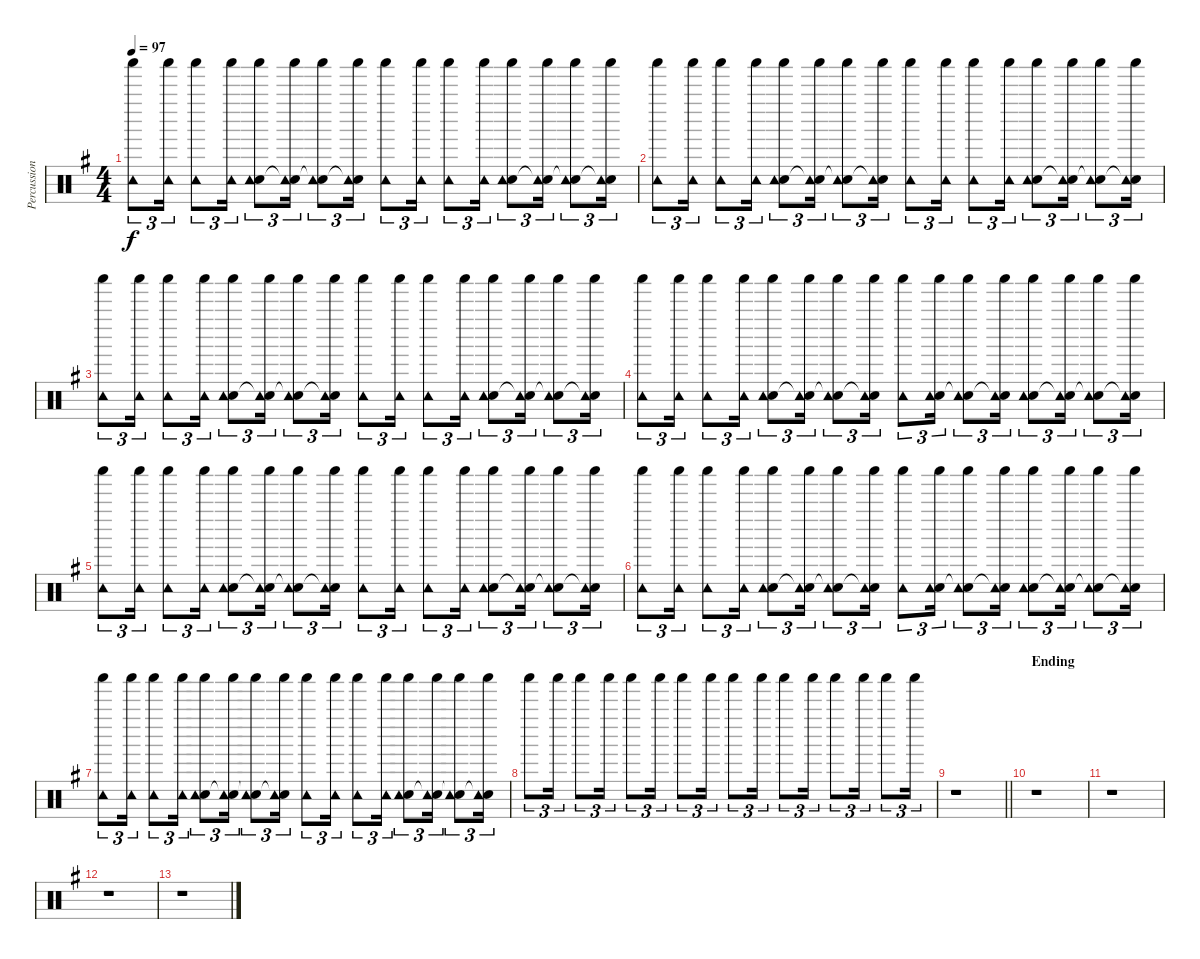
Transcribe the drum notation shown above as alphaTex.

\track ("Percussion" "Percussion") {instrument percussion}
\staff {score}
\articulation defaults
\ts (4 4)
\tempo 97
\clef neutral
\ks g
("Shaker (hit)" "Tambourine (hit)").8{tu (3 2) dy f} ("Shaker (hit)" "Tambourine (hit)").16{tu (3 2)} ("Shaker (hit)" "Tambourine (hit)").8{tu (3 2)} ("Shaker (hit)" "Tambourine (hit)").16{tu (3 2)} ("Hand Clap (hit)" "Shaker (hit)" "Tambourine (hit)").8{tu (3 2)} ("Snare (hit)"{t} "Shaker (hit)" "Tambourine (hit)").16{tu (3 2)} ("Snare (hit)"{t} "Shaker (hit)" "Tambourine (hit)").8{tu (3 2)} ("Snare (hit)"{t} "Shaker (hit)" "Tambourine (hit)").16{tu (3 2)} ("Shaker (hit)" "Tambourine (hit)").8{tu (3 2)} ("Shaker (hit)" "Tambourine (hit)").16{tu (3 2)} ("Shaker (hit)" "Tambourine (hit)").8{tu (3 2)} ("Shaker (hit)" "Tambourine (hit)").16{tu (3 2)} ("Hand Clap (hit)" "Shaker (hit)" "Tambourine (hit)").8{tu (3 2)} ("Snare (hit)"{t} "Shaker (hit)" "Tambourine (hit)").16{tu (3 2)} ("Snare (hit)"{t} "Shaker (hit)" "Tambourine (hit)").8{tu (3 2)} ("Snare (hit)"{t} "Shaker (hit)" "Tambourine (hit)").16{tu (3 2)} |
("Shaker (hit)" "Tambourine (hit)").8{tu (3 2)} ("Shaker (hit)" "Tambourine (hit)").16{tu (3 2)} ("Shaker (hit)" "Tambourine (hit)").8{tu (3 2)} ("Shaker (hit)" "Tambourine (hit)").16{tu (3 2)} ("Hand Clap (hit)" "Shaker (hit)" "Tambourine (hit)").8{tu (3 2)} ("Snare (hit)"{t} "Shaker (hit)" "Tambourine (hit)").16{tu (3 2)} ("Snare (hit)"{t} "Shaker (hit)" "Tambourine (hit)").8{tu (3 2)} ("Snare (hit)"{t} "Shaker (hit)" "Tambourine (hit)").16{tu (3 2)} ("Shaker (hit)" "Tambourine (hit)").8{tu (3 2)} ("Shaker (hit)" "Tambourine (hit)").16{tu (3 2)} ("Shaker (hit)" "Tambourine (hit)").8{tu (3 2)} ("Shaker (hit)" "Tambourine (hit)").16{tu (3 2)} ("Hand Clap (hit)" "Shaker (hit)" "Tambourine (hit)").8{tu (3 2)} ("Snare (hit)"{t} "Shaker (hit)" "Tambourine (hit)").16{tu (3 2)} ("Snare (hit)"{t} "Shaker (hit)" "Tambourine (hit)").8{tu (3 2)} ("Snare (hit)"{t} "Shaker (hit)" "Tambourine (hit)").16{tu (3 2)} |
("Shaker (hit)" "Tambourine (hit)").8{tu (3 2)} ("Shaker (hit)" "Tambourine (hit)").16{tu (3 2)} ("Shaker (hit)" "Tambourine (hit)").8{tu (3 2)} ("Shaker (hit)" "Tambourine (hit)").16{tu (3 2)} ("Hand Clap (hit)" "Shaker (hit)" "Tambourine (hit)").8{tu (3 2)} ("Snare (hit)"{t} "Shaker (hit)" "Tambourine (hit)").16{tu (3 2)} ("Snare (hit)"{t} "Shaker (hit)" "Tambourine (hit)").8{tu (3 2)} ("Snare (hit)"{t} "Shaker (hit)" "Tambourine (hit)").16{tu (3 2)} ("Shaker (hit)" "Tambourine (hit)").8{tu (3 2)} ("Shaker (hit)" "Tambourine (hit)").16{tu (3 2)} ("Shaker (hit)" "Tambourine (hit)").8{tu (3 2)} ("Shaker (hit)" "Tambourine (hit)").16{tu (3 2)} ("Hand Clap (hit)" "Shaker (hit)" "Tambourine (hit)").8{tu (3 2)} ("Snare (hit)"{t} "Shaker (hit)" "Tambourine (hit)").16{tu (3 2)} ("Snare (hit)"{t} "Shaker (hit)" "Tambourine (hit)").8{tu (3 2)} ("Snare (hit)"{t} "Shaker (hit)" "Tambourine (hit)").16{tu (3 2)} |
("Shaker (hit)" "Tambourine (hit)").8{tu (3 2)} ("Shaker (hit)" "Tambourine (hit)").16{tu (3 2)} ("Shaker (hit)" "Tambourine (hit)").8{tu (3 2)} ("Shaker (hit)" "Tambourine (hit)").16{tu (3 2)} ("Hand Clap (hit)" "Shaker (hit)" "Tambourine (hit)").8{tu (3 2)} ("Snare (hit)"{t} "Shaker (hit)" "Tambourine (hit)").16{tu (3 2)} ("Snare (hit)"{t} "Shaker (hit)" "Tambourine (hit)").8{tu (3 2)} ("Snare (hit)"{t} "Shaker (hit)" "Tambourine (hit)").16{tu (3 2)} ("Shaker (hit)" "Tambourine (hit)").8{tu (3 2)} ("Hand Clap (hit)" "Shaker (hit)" "Tambourine (hit)").16{tu (3 2)} ("Snare (hit)"{t} "Shaker (hit)" "Tambourine (hit)").8{tu (3 2)} ("Snare (hit)"{t} "Shaker (hit)" "Tambourine (hit)").16{tu (3 2)} ("Hand Clap (hit)" "Shaker (hit)" "Tambourine (hit)").8{tu (3 2)} ("Snare (hit)"{t} "Shaker (hit)" "Tambourine (hit)").16{tu (3 2)} ("Snare (hit)"{t} "Shaker (hit)" "Tambourine (hit)").8{tu (3 2)} ("Snare (hit)"{t} "Shaker (hit)" "Tambourine (hit)").16{tu (3 2)} |
("Shaker (hit)" "Tambourine (hit)").8{tu (3 2)} ("Shaker (hit)" "Tambourine (hit)").16{tu (3 2)} ("Shaker (hit)" "Tambourine (hit)").8{tu (3 2)} ("Shaker (hit)" "Tambourine (hit)").16{tu (3 2)} ("Hand Clap (hit)" "Shaker (hit)" "Tambourine (hit)").8{tu (3 2)} ("Snare (hit)"{t} "Shaker (hit)" "Tambourine (hit)").16{tu (3 2)} ("Snare (hit)"{t} "Shaker (hit)" "Tambourine (hit)").8{tu (3 2)} ("Snare (hit)"{t} "Shaker (hit)" "Tambourine (hit)").16{tu (3 2)} ("Shaker (hit)" "Tambourine (hit)").8{tu (3 2)} ("Shaker (hit)" "Tambourine (hit)").16{tu (3 2)} ("Shaker (hit)" "Tambourine (hit)").8{tu (3 2)} ("Shaker (hit)" "Tambourine (hit)").16{tu (3 2)} ("Hand Clap (hit)" "Shaker (hit)" "Tambourine (hit)").8{tu (3 2)} ("Snare (hit)"{t} "Shaker (hit)" "Tambourine (hit)").16{tu (3 2)} ("Snare (hit)"{t} "Shaker (hit)" "Tambourine (hit)").8{tu (3 2)} ("Snare (hit)"{t} "Shaker (hit)" "Tambourine (hit)").16{tu (3 2)} |
("Shaker (hit)" "Tambourine (hit)").8{tu (3 2)} ("Shaker (hit)" "Tambourine (hit)").16{tu (3 2)} ("Shaker (hit)" "Tambourine (hit)").8{tu (3 2)} ("Shaker (hit)" "Tambourine (hit)").16{tu (3 2)} ("Hand Clap (hit)" "Shaker (hit)" "Tambourine (hit)").8{tu (3 2)} ("Snare (hit)"{t} "Shaker (hit)" "Tambourine (hit)").16{tu (3 2)} ("Snare (hit)"{t} "Shaker (hit)" "Tambourine (hit)").8{tu (3 2)} ("Snare (hit)"{t} "Shaker (hit)" "Tambourine (hit)").16{tu (3 2)} ("Shaker (hit)" "Tambourine (hit)").8{tu (3 2)} ("Hand Clap (hit)" "Shaker (hit)" "Tambourine (hit)").16{tu (3 2)} ("Snare (hit)"{t} "Shaker (hit)" "Tambourine (hit)").8{tu (3 2)} ("Snare (hit)"{t} "Shaker (hit)" "Tambourine (hit)").16{tu (3 2)} ("Hand Clap (hit)" "Shaker (hit)" "Tambourine (hit)").8{tu (3 2)} ("Snare (hit)"{t} "Shaker (hit)" "Tambourine (hit)").16{tu (3 2)} ("Snare (hit)"{t} "Shaker (hit)" "Tambourine (hit)").8{tu (3 2)} ("Snare (hit)"{t} "Shaker (hit)" "Tambourine (hit)").16{tu (3 2)} |
("Shaker (hit)" "Tambourine (hit)").8{tu (3 2)} ("Shaker (hit)" "Tambourine (hit)").16{tu (3 2)} ("Shaker (hit)" "Tambourine (hit)").8{tu (3 2)} ("Shaker (hit)" "Tambourine (hit)").16{tu (3 2)} ("Hand Clap (hit)" "Shaker (hit)" "Tambourine (hit)").8{tu (3 2)} ("Snare (hit)"{t} "Shaker (hit)" "Tambourine (hit)").16{tu (3 2)} ("Snare (hit)"{t} "Shaker (hit)" "Tambourine (hit)").8{tu (3 2)} ("Snare (hit)"{t} "Shaker (hit)" "Tambourine (hit)").16{tu (3 2)} ("Shaker (hit)" "Tambourine (hit)").8{tu (3 2)} ("Shaker (hit)" "Tambourine (hit)").16{tu (3 2)} ("Shaker (hit)" "Tambourine (hit)").8{tu (3 2)} ("Shaker (hit)" "Tambourine (hit)").16{tu (3 2)} ("Hand Clap (hit)" "Shaker (hit)" "Tambourine (hit)").8{tu (3 2)} ("Snare (hit)"{t} "Shaker (hit)" "Tambourine (hit)").16{tu (3 2)} ("Snare (hit)"{t} "Shaker (hit)" "Tambourine (hit)").8{tu (3 2)} ("Snare (hit)"{t} "Shaker (hit)" "Tambourine (hit)").16{tu (3 2)} |
"Shaker (hit)".8{tu (3 2)} "Shaker (hit)".16{tu (3 2)} "Shaker (hit)".8{tu (3 2)} "Shaker (hit)".16{tu (3 2)} "Shaker (hit)".8{tu (3 2)} "Shaker (hit)".16{tu (3 2)} "Shaker (hit)".8{tu (3 2)} "Shaker (hit)".16{tu (3 2)} "Shaker (hit)".8{tu (3 2)} "Shaker (hit)".16{tu (3 2)} "Shaker (hit)".8{tu (3 2)} "Shaker (hit)".16{tu (3 2)} "Shaker (hit)".8{tu (3 2)} "Shaker (hit)".16{tu (3 2)} "Shaker (hit)".8{tu (3 2)} "Shaker (hit)".16{tu (3 2)} |
\barLineRight lightlight
r.1 |
\section ("" "Ending")
r.1 |
r.1 |
r.1 |
r.1
